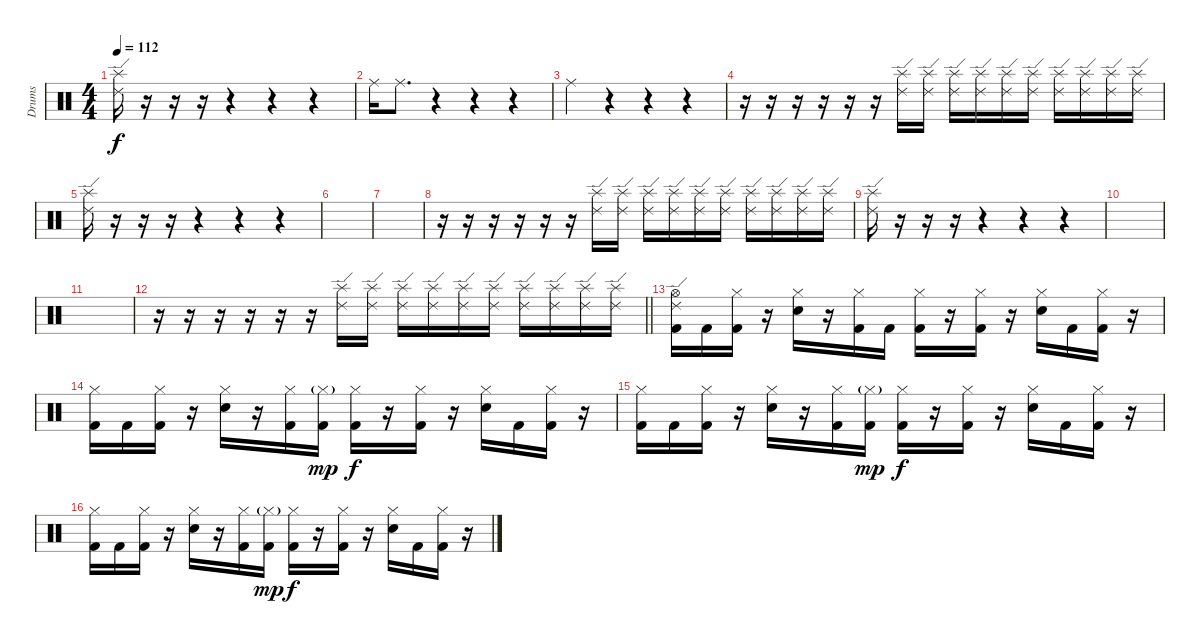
\track ("Drums" "Drums") {instrument percussion}
\staff {score}
\articulation defaults
\ts (4 4)
\tempo 112
\clef neutral
\ks c
("Ride (edge) 2" "Splash (hit)").16{dy f} r.16 r.16 r.16 r.4 r.4 r.4 |
"Ride (middle)".16 "Ride (middle)".8{d} r.4 r.4 r.4 |
"Ride (middle)".4 r.4 r.4 r.4 |
r.16{volume 1} r.16{volume 12} r.16 r.16 r.16 r.16 ("Ride (edge) 2" "Splash (hit)").16 ("Ride (edge) 2" "Splash (hit)").16 ("Ride (edge) 2" "Splash (hit)").16 ("Ride (edge) 2" "Splash (hit)").16 ("Ride (edge) 2" "Splash (hit)").16 ("Ride (edge) 2" "Splash (hit)").16 ("Ride (edge) 2" "Splash (hit)").16 ("Ride (edge) 2" "Splash (hit)").16 ("Ride (edge) 2" "Splash (hit)").16 ("Ride (edge) 2" "Splash (hit)").16 |
("Ride (edge) 2" "Splash (hit)").16 r.16 r.16 r.16 r.4 r.4 r.4 |
|
|
r.16{volume 1} r.16{volume 12} r.16 r.16 r.16 r.16 ("Ride (edge) 2" "Splash (hit)").16 ("Ride (edge) 2" "Splash (hit)").16 ("Ride (edge) 2" "Splash (hit)").16 ("Ride (edge) 2" "Splash (hit)").16 ("Ride (edge) 2" "Splash (hit)").16 ("Ride (edge) 2" "Splash (hit)").16 ("Ride (edge) 2" "Splash (hit)").16 ("Ride (edge) 2" "Splash (hit)").16 ("Ride (edge) 2" "Splash (hit)").16 ("Ride (edge) 2" "Splash (hit)").16 |
("Ride (edge) 2" "Splash (hit)").16 r.16 r.16 r.16 r.4 r.4 r.4 |
|
|
\barLineRight lightlight
r.16{volume 1} r.16{volume 12} r.16 r.16 r.16 r.16 ("Ride (edge) 2" "Splash (hit)").16 ("Ride (edge) 2" "Splash (hit)").16 ("Ride (edge) 2" "Splash (hit)").16 ("Ride (edge) 2" "Splash (hit)").16 ("Ride (edge) 2" "Splash (hit)").16 ("Ride (edge) 2" "Splash (hit)").16 ("Ride (edge) 2" "Splash (hit)").16 ("Ride (edge) 2" "Splash (hit)").16 ("Ride (edge) 2" "Splash (hit)").16 ("Ride (edge) 2" "Splash (hit)").16 |
("Ride (edge) 2" "Hi-Hat (open)" "Kick (hit) 2").16 "Kick (hit) 2".16 ("Hi-Hat (closed)" "Kick (hit) 2").16 r.16 ("Hi-Hat (closed)" "Electric Snare (hit)").16 r.16 ("Hi-Hat (closed)" "Kick (hit) 2").16 "Kick (hit) 2".16 ("Hi-Hat (closed)" "Kick (hit) 2").16 r.16 ("Hi-Hat (closed)" "Kick (hit) 2").16 r.16 ("Hi-Hat (closed)" "Electric Snare (hit)").16 "Kick (hit) 2".16 ("Hi-Hat (closed)" "Kick (hit) 2").16 r.16 |
("Hi-Hat (closed)" "Kick (hit) 2").16 "Kick (hit) 2".16 ("Hi-Hat (closed)" "Kick (hit) 2").16 r.16 ("Hi-Hat (closed)" "Electric Snare (hit)").16 r.16 ("Hi-Hat (closed)" "Kick (hit) 2").16 ("Hi-Hat (closed)"{g} "Kick (hit) 2").16{dy mp} ("Hi-Hat (closed)" "Kick (hit) 2").16{dy f} r.16 ("Hi-Hat (closed)" "Kick (hit) 2").16 r.16 ("Hi-Hat (closed)" "Electric Snare (hit)").16 "Kick (hit) 2".16 ("Hi-Hat (closed)" "Kick (hit) 2").16 r.16 |
("Hi-Hat (closed)" "Kick (hit) 2").16 "Kick (hit) 2".16 ("Hi-Hat (closed)" "Kick (hit) 2").16 r.16 ("Hi-Hat (closed)" "Electric Snare (hit)").16 r.16 ("Hi-Hat (closed)" "Kick (hit) 2").16 ("Hi-Hat (closed)"{g} "Kick (hit) 2").16{dy mp} ("Hi-Hat (closed)" "Kick (hit) 2").16{dy f} r.16 ("Hi-Hat (closed)" "Kick (hit) 2").16 r.16 ("Hi-Hat (closed)" "Electric Snare (hit)").16 "Kick (hit) 2".16 ("Hi-Hat (closed)" "Kick (hit) 2").16 r.16 |
("Hi-Hat (closed)" "Kick (hit) 2").16 "Kick (hit) 2".16 ("Hi-Hat (closed)" "Kick (hit) 2").16 r.16 ("Hi-Hat (closed)" "Electric Snare (hit)").16 r.16 ("Hi-Hat (closed)" "Kick (hit) 2").16 ("Hi-Hat (closed)"{g} "Kick (hit) 2").16{dy mp} ("Hi-Hat (closed)" "Kick (hit) 2").16{dy f} r.16 ("Hi-Hat (closed)" "Kick (hit) 2").16 r.16 ("Hi-Hat (closed)" "Electric Snare (hit)").16 "Kick (hit) 2".16 ("Hi-Hat (closed)" "Kick (hit) 2").16 r.16
